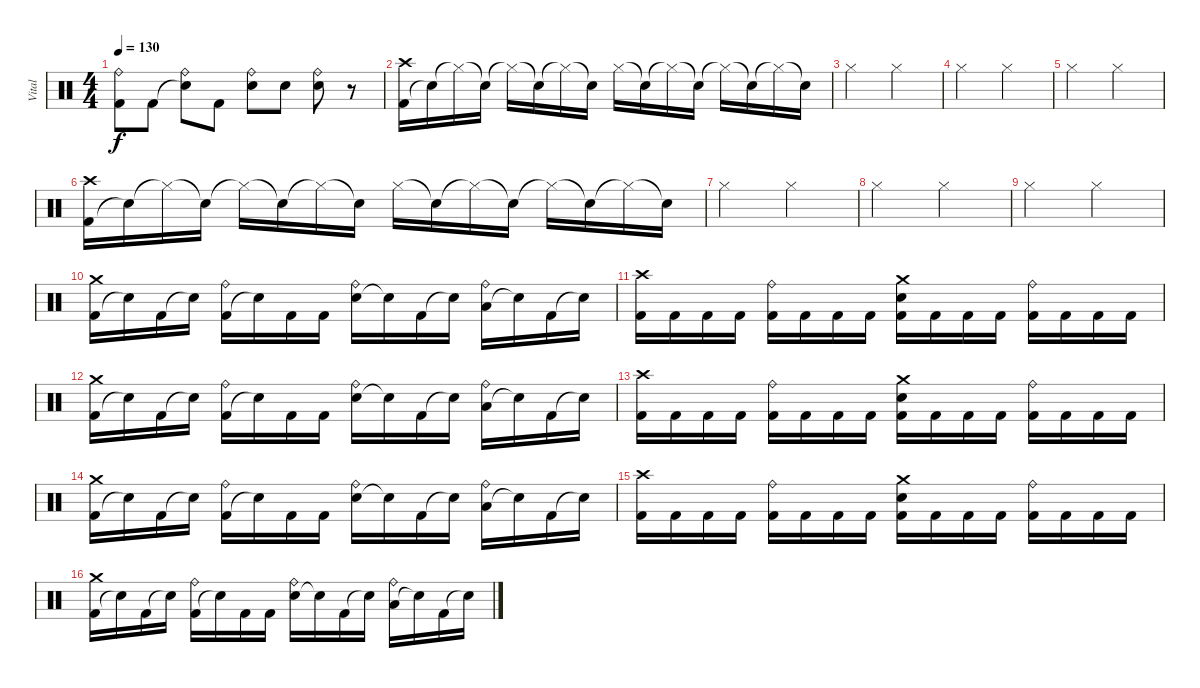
\track ("Vital" "Vital") {instrument percussion}
\staff {score}
\articulation defaults
\ts (4 4)
\tempo 130
\clef neutral
\ks c
("Kick (hit) 2" "Ride (bell)").8{dy f} "Kick (hit) 2".8 ("Snare (hit)"{t} "Ride (bell)").8 "Kick (hit) 2".8 ("Snare (hit) 2" "Ride (bell)").8 "Snare (hit) 2".8 ("Snare (hit) 2" "Ride (bell)").8 r.8 |
("Kick (hit) 2" "Crash high (hit)").16 "Snare (hit)"{t}.16 "Hi-Hat (closed)"{t}.16 "Snare (hit)"{t}.16 "Hi-Hat (closed)"{t}.16 "Snare (hit)"{t}.16 "Hi-Hat (closed)"{t}.16 "Snare (hit)"{t}.16 "Hi-Hat (closed)".16 "Snare (hit)"{t}.16 "Hi-Hat (closed)"{t}.16 "Snare (hit)"{t}.16 "Hi-Hat (closed)"{t}.16 "Snare (hit)"{t}.16 "Hi-Hat (closed)"{t}.16 "Snare (hit)"{t}.16 |
"Hi-Hat (closed)".2 "Hi-Hat (closed)".2 |
"Hi-Hat (closed)".2 "Hi-Hat (closed)".2 |
"Hi-Hat (closed)".2 "Hi-Hat (closed)".2 |
("Kick (hit) 2" "Crash high (hit)").16 "Snare (hit)"{t}.16 "Hi-Hat (closed)"{t}.16 "Snare (hit)"{t}.16 "Hi-Hat (closed)"{t}.16 "Snare (hit)"{t}.16 "Hi-Hat (closed)"{t}.16 "Snare (hit)"{t}.16 "Hi-Hat (closed)".16 "Snare (hit)"{t}.16 "Hi-Hat (closed)"{t}.16 "Snare (hit)"{t}.16 "Hi-Hat (closed)"{t}.16 "Snare (hit)"{t}.16 "Hi-Hat (closed)"{t}.16 "Snare (hit)"{t}.16 |
"Hi-Hat (closed)".2 "Hi-Hat (closed)".2 |
"Hi-Hat (closed)".2 "Hi-Hat (closed)".2 |
"Hi-Hat (closed)".2 "Hi-Hat (closed)".2 |
("Kick (hit) 2" "Crash medium (hit)").16 "Snare (hit)"{t}.16 "Kick (hit) 2".16 "Snare (hit)"{t}.16 ("Kick (hit) 2" "Ride (bell)").16 "Snare (hit)"{t}.16 "Kick (hit) 2".16 "Kick (hit) 2".16 ("Snare (hit) 2" "Ride (bell)").16 "Snare (hit)"{t}.16 "Kick (hit) 2".16 "Snare (hit)"{t}.16 ("Low Floor Tom (hit)" "Ride (bell)").16 "Snare (hit)"{t}.16 "Kick (hit) 2".16 "Snare (hit)"{t}.16 |
("Kick (hit) 2" "Crash high (hit)").16 "Kick (hit) 2".16 "Kick (hit) 2".16 "Kick (hit) 2".16 ("Kick (hit) 2" "Ride (bell)").16 "Kick (hit) 2".16 "Kick (hit) 2".16 "Kick (hit) 2".16 ("Kick (hit) 2" "Snare (hit) 2" "Crash medium (hit)").16 "Kick (hit) 2".16 "Kick (hit) 2".16 "Kick (hit) 2".16 ("Kick (hit) 2" "Ride (bell)").16 "Kick (hit) 2".16 "Kick (hit) 2".16 "Kick (hit) 2".16 |
("Kick (hit) 2" "Crash medium (hit)").16 "Snare (hit)"{t}.16 "Kick (hit) 2".16 "Snare (hit)"{t}.16 ("Kick (hit) 2" "Ride (bell)").16 "Snare (hit)"{t}.16 "Kick (hit) 2".16 "Kick (hit) 2".16 ("Snare (hit) 2" "Ride (bell)").16 "Snare (hit)"{t}.16 "Kick (hit) 2".16 "Snare (hit)"{t}.16 ("Low Floor Tom (hit)" "Ride (bell)").16 "Snare (hit)"{t}.16 "Kick (hit) 2".16 "Snare (hit)"{t}.16 |
("Kick (hit) 2" "Crash high (hit)").16 "Kick (hit) 2".16 "Kick (hit) 2".16 "Kick (hit) 2".16 ("Kick (hit) 2" "Ride (bell)").16 "Kick (hit) 2".16 "Kick (hit) 2".16 "Kick (hit) 2".16 ("Kick (hit) 2" "Snare (hit) 2" "Crash medium (hit)").16 "Kick (hit) 2".16 "Kick (hit) 2".16 "Kick (hit) 2".16 ("Kick (hit) 2" "Ride (bell)").16 "Kick (hit) 2".16 "Kick (hit) 2".16 "Kick (hit) 2".16 |
("Kick (hit) 2" "Crash medium (hit)").16 "Snare (hit)"{t}.16 "Kick (hit) 2".16 "Snare (hit)"{t}.16 ("Kick (hit) 2" "Ride (bell)").16 "Snare (hit)"{t}.16 "Kick (hit) 2".16 "Kick (hit) 2".16 ("Snare (hit) 2" "Ride (bell)").16 "Snare (hit)"{t}.16 "Kick (hit) 2".16 "Snare (hit)"{t}.16 ("Low Floor Tom (hit)" "Ride (bell)").16 "Snare (hit)"{t}.16 "Kick (hit) 2".16 "Snare (hit)"{t}.16 |
("Kick (hit) 2" "Crash high (hit)").16 "Kick (hit) 2".16 "Kick (hit) 2".16 "Kick (hit) 2".16 ("Kick (hit) 2" "Ride (bell)").16 "Kick (hit) 2".16 "Kick (hit) 2".16 "Kick (hit) 2".16 ("Kick (hit) 2" "Snare (hit) 2" "Crash medium (hit)").16 "Kick (hit) 2".16 "Kick (hit) 2".16 "Kick (hit) 2".16 ("Kick (hit) 2" "Ride (bell)").16 "Kick (hit) 2".16 "Kick (hit) 2".16 "Kick (hit) 2".16 |
("Kick (hit) 2" "Crash medium (hit)").16 "Snare (hit)"{t}.16 "Kick (hit) 2".16 "Snare (hit)"{t}.16 ("Kick (hit) 2" "Ride (bell)").16 "Snare (hit)"{t}.16 "Kick (hit) 2".16 "Kick (hit) 2".16 ("Snare (hit) 2" "Ride (bell)").16 "Snare (hit)"{t}.16 "Kick (hit) 2".16 "Snare (hit)"{t}.16 ("Low Floor Tom (hit)" "Ride (bell)").16 "Snare (hit)"{t}.16 "Kick (hit) 2".16 "Snare (hit)"{t}.16
